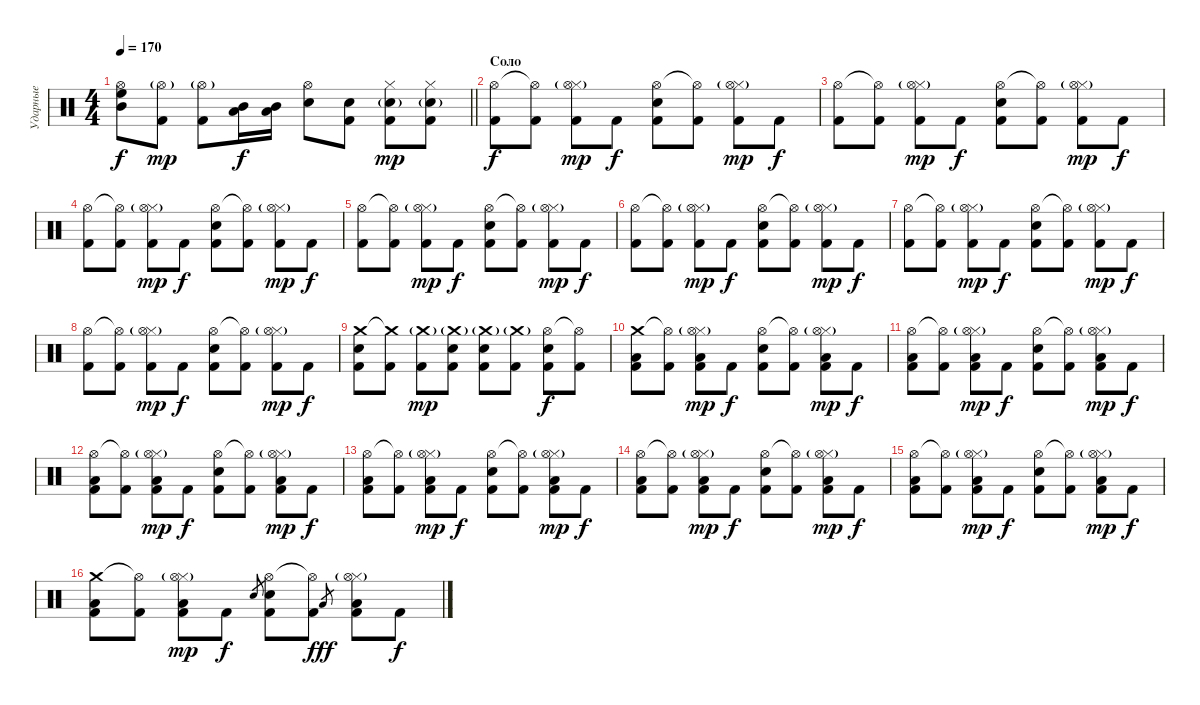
\track ("Ударные" "Ударные") {instrument percussion}
\staff {score}
\articulation defaults
\ts (4 4)
\tempo 170
\clef neutral
\barLineRight lightlight
\ks c
("Hi-Hat (open)" "Mid Tom (hit)" "High Floor Tom (hit)").8{dy f} ("Hi-Hat (open)"{g} "Kick (hit) 2").8{dy mp} ("Hi-Hat (open)"{g} "Kick (hit) 2").8 ("Mid Tom (hit)" "Low Tom (hit)").16{dy f} ("Mid Tom (hit)" "Low Tom (hit)").16 ("Hi-Hat (open)" "Electric Snare (hit)").8 ("Electric Snare (hit)" "Kick (hit) 2").8 ("Hi-Hat (closed)" "Kick (hit) 2" "Electric Snare (hit)"{g}).8{dy mp} ("Hi-Hat (closed)" "Kick (hit) 2" "Electric Snare (hit)"{g}).8 |
\section ("" "Соло")
("Hi-Hat (open)" "Kick (hit) 2").8{dy f} ("Hi-Hat (open)"{t} "Kick (hit) 2").8 ("Hi-Hat (closed)" "Hi-Hat (open)"{g} "Kick (hit) 2").8{dy mp} "Kick (hit) 2".8{dy f} ("Hi-Hat (open)" "Electric Snare (hit)" "Kick (hit) 2").8 ("Hi-Hat (open)"{t} "Kick (hit) 2").8 ("Hi-Hat (closed)" "Hi-Hat (open)"{g} "Kick (hit) 2").8{dy mp} "Kick (hit) 2".8{dy f} |
("Hi-Hat (open)" "Kick (hit) 2").8 ("Hi-Hat (open)"{t} "Kick (hit) 2").8 ("Hi-Hat (closed)" "Hi-Hat (open)"{g} "Kick (hit) 2").8{dy mp} "Kick (hit) 2".8{dy f} ("Hi-Hat (open)" "Electric Snare (hit)" "Kick (hit) 2").8 ("Hi-Hat (open)"{t} "Kick (hit) 2").8 ("Hi-Hat (closed)" "Hi-Hat (open)"{g} "Kick (hit) 2").8{dy mp} "Kick (hit) 2".8{dy f} |
("Hi-Hat (open)" "Kick (hit) 2").8 ("Hi-Hat (open)"{t} "Kick (hit) 2").8 ("Hi-Hat (closed)" "Hi-Hat (open)"{g} "Kick (hit) 2").8{dy mp} "Kick (hit) 2".8{dy f} ("Hi-Hat (open)" "Electric Snare (hit)" "Kick (hit) 2").8 ("Hi-Hat (open)"{t} "Kick (hit) 2").8 ("Hi-Hat (closed)" "Hi-Hat (open)"{g} "Kick (hit) 2").8{dy mp} "Kick (hit) 2".8{dy f} |
("Hi-Hat (open)" "Kick (hit) 2").8 ("Hi-Hat (open)"{t} "Kick (hit) 2").8 ("Hi-Hat (closed)" "Hi-Hat (open)"{g} "Kick (hit) 2").8{dy mp} "Kick (hit) 2".8{dy f} ("Hi-Hat (open)" "Electric Snare (hit)" "Kick (hit) 2").8 ("Hi-Hat (open)"{t} "Kick (hit) 2").8 ("Hi-Hat (closed)" "Hi-Hat (open)"{g} "Kick (hit) 2").8{dy mp} "Kick (hit) 2".8{dy f} |
("Hi-Hat (open)" "Kick (hit) 2").8 ("Hi-Hat (open)"{t} "Kick (hit) 2").8 ("Hi-Hat (closed)" "Hi-Hat (open)"{g} "Kick (hit) 2").8{dy mp} "Kick (hit) 2".8{dy f} ("Hi-Hat (open)" "Electric Snare (hit)" "Kick (hit) 2").8 ("Hi-Hat (open)"{t} "Kick (hit) 2").8 ("Hi-Hat (closed)" "Hi-Hat (open)"{g} "Kick (hit) 2").8{dy mp} "Kick (hit) 2".8{dy f} |
("Hi-Hat (open)" "Kick (hit) 2").8 ("Hi-Hat (open)"{t} "Kick (hit) 2").8 ("Hi-Hat (closed)" "Hi-Hat (open)"{g} "Kick (hit) 2").8{dy mp} "Kick (hit) 2".8{dy f} ("Hi-Hat (open)" "Electric Snare (hit)" "Kick (hit) 2").8 ("Hi-Hat (open)"{t} "Kick (hit) 2").8 ("Hi-Hat (closed)" "Hi-Hat (open)"{g} "Kick (hit) 2").8{dy mp} "Kick (hit) 2".8{dy f} |
("Hi-Hat (open)" "Kick (hit) 2").8 ("Hi-Hat (open)"{t} "Kick (hit) 2").8 ("Hi-Hat (closed)" "Hi-Hat (open)"{g} "Kick (hit) 2").8{dy mp} "Kick (hit) 2".8{dy f} ("Hi-Hat (open)" "Electric Snare (hit)" "Kick (hit) 2").8 ("Hi-Hat (open)"{t} "Kick (hit) 2").8 ("Hi-Hat (closed)" "Hi-Hat (open)"{g} "Kick (hit) 2").8{dy mp} "Kick (hit) 2".8{dy f} |
("Crash medium (hit)" "Electric Snare (hit)" "Kick (hit) 2").8 ("Crash medium (hit)"{t} "Kick (hit) 2").8 ("Crash medium (hit)"{g} "Kick (hit) 2").8{dy mp} ("Crash medium (hit)"{g} "Electric Snare (hit)" "Kick (hit) 2").8 ("Crash medium (hit)"{g} "Electric Snare (hit)" "Kick (hit) 2").8 ("Crash medium (hit)"{g} "Kick (hit) 2").8 ("Hi-Hat (open)" "Electric Snare (hit)" "Kick (hit) 2").8{dy f} ("Hi-Hat (open)"{t} "Kick (hit) 2").8 |
("Crash medium (hit)" "Low Tom (hit)" "Kick (hit) 2").8 ("Hi-Hat (open)"{t} "Kick (hit) 2").8 ("Hi-Hat (closed)" "Hi-Hat (open)"{g} "Low Tom (hit)" "Kick (hit) 2").8{dy mp} "Kick (hit) 2".8{dy f} ("Hi-Hat (open)" "Electric Snare (hit)" "Kick (hit) 2").8 ("Hi-Hat (open)"{t} "Kick (hit) 2").8 ("Hi-Hat (closed)" "Hi-Hat (open)"{g} "Low Tom (hit)" "Kick (hit) 2").8{dy mp} "Kick (hit) 2".8{dy f} |
("Hi-Hat (open)" "Low Tom (hit)" "Kick (hit) 2").8 ("Hi-Hat (open)"{t} "Kick (hit) 2").8 ("Hi-Hat (closed)" "Hi-Hat (open)"{g} "Low Tom (hit)" "Kick (hit) 2").8{dy mp} "Kick (hit) 2".8{dy f} ("Hi-Hat (open)" "Electric Snare (hit)" "Kick (hit) 2").8 ("Hi-Hat (open)"{t} "Kick (hit) 2").8 ("Hi-Hat (closed)" "Hi-Hat (open)"{g} "Low Tom (hit)" "Kick (hit) 2").8{dy mp} "Kick (hit) 2".8{dy f} |
("Hi-Hat (open)" "Low Tom (hit)" "Kick (hit) 2").8 ("Hi-Hat (open)"{t} "Kick (hit) 2").8 ("Hi-Hat (closed)" "Hi-Hat (open)"{g} "Low Tom (hit)" "Kick (hit) 2").8{dy mp} "Kick (hit) 2".8{dy f} ("Hi-Hat (open)" "Electric Snare (hit)" "Kick (hit) 2").8 ("Hi-Hat (open)"{t} "Kick (hit) 2").8 ("Hi-Hat (closed)" "Hi-Hat (open)"{g} "Low Tom (hit)" "Kick (hit) 2").8{dy mp} "Kick (hit) 2".8{dy f} |
("Hi-Hat (open)" "Low Tom (hit)" "Kick (hit) 2").8 ("Hi-Hat (open)"{t} "Kick (hit) 2").8 ("Hi-Hat (closed)" "Hi-Hat (open)"{g} "Low Tom (hit)" "Kick (hit) 2").8{dy mp} "Kick (hit) 2".8{dy f} ("Hi-Hat (open)" "Electric Snare (hit)" "Kick (hit) 2").8 ("Hi-Hat (open)"{t} "Kick (hit) 2").8 ("Hi-Hat (closed)" "Hi-Hat (open)"{g} "Low Tom (hit)" "Kick (hit) 2").8{dy mp} "Kick (hit) 2".8{dy f} |
("Hi-Hat (open)" "Low Tom (hit)" "Kick (hit) 2").8 ("Hi-Hat (open)"{t} "Kick (hit) 2").8 ("Hi-Hat (closed)" "Hi-Hat (open)"{g} "Low Tom (hit)" "Kick (hit) 2").8{dy mp} "Kick (hit) 2".8{dy f} ("Hi-Hat (open)" "Electric Snare (hit)" "Kick (hit) 2").8 ("Hi-Hat (open)"{t} "Kick (hit) 2").8 ("Hi-Hat (closed)" "Hi-Hat (open)"{g} "Low Tom (hit)" "Kick (hit) 2").8{dy mp} "Kick (hit) 2".8{dy f} |
("Hi-Hat (open)" "Low Tom (hit)" "Kick (hit) 2").8 ("Hi-Hat (open)"{t} "Kick (hit) 2").8 ("Hi-Hat (closed)" "Hi-Hat (open)"{g} "Low Tom (hit)" "Kick (hit) 2").8{dy mp} "Kick (hit) 2".8{dy f} ("Hi-Hat (open)" "Electric Snare (hit)" "Kick (hit) 2").8 ("Hi-Hat (open)"{t} "Kick (hit) 2").8 ("Hi-Hat (closed)" "Hi-Hat (open)"{g} "Low Tom (hit)" "Kick (hit) 2").8{dy mp} "Kick (hit) 2".8{dy f} |
("Crash medium (hit)" "Low Tom (hit)" "Kick (hit) 2").8 ("Hi-Hat (open)"{t} "Kick (hit) 2").8 ("Hi-Hat (closed)" "Hi-Hat (open)"{g} "Low Tom (hit)" "Kick (hit) 2").8{dy mp} "Kick (hit) 2".8{dy f} "Electric Snare (hit)".8{gr} ("Hi-Hat (open)" "Electric Snare (hit)" "Kick (hit) 2").8 ("Hi-Hat (open)"{t} "Kick (hit) 2").8 "Low Tom (hit)".8{gr dy fff} ("Hi-Hat (closed)" "Hi-Hat (open)"{g} "Low Tom (hit)" "Kick (hit) 2").8 "Kick (hit) 2".8{dy f}
